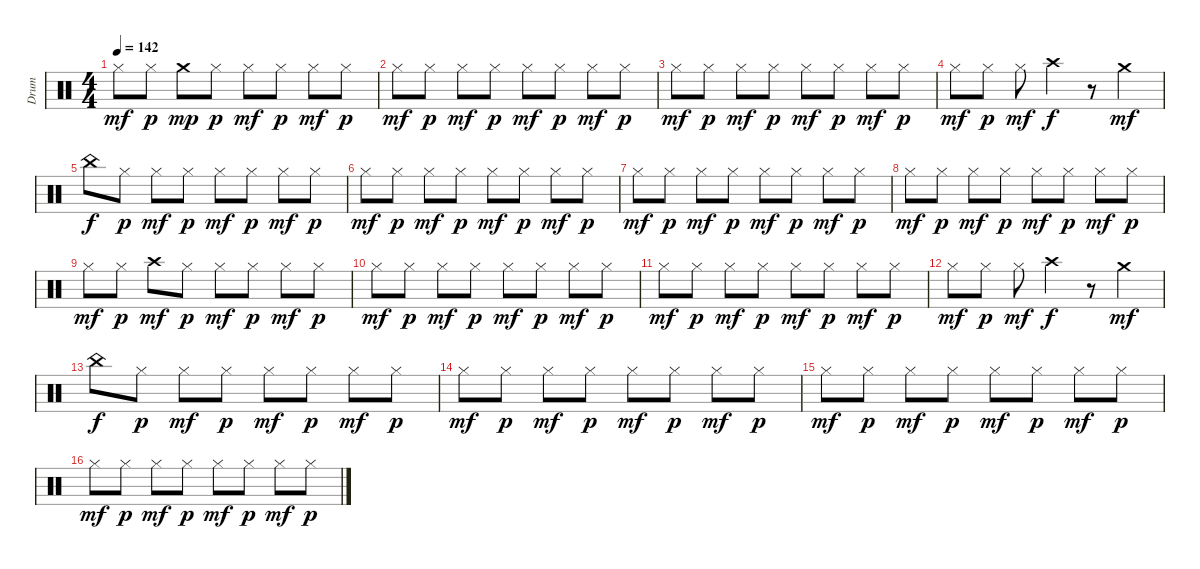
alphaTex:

\track ("Drum" "Drum") {instrument percussion}
\staff {score}
\articulation defaults
\ts (4 4)
\tempo 142
\clef neutral
\ks c "Hi-Hat (closed)".8{dy mf} "Hi-Hat (closed)".8{dy p} "Crash medium (hit)".8{dy mp} "Hi-Hat (closed)".8{dy p} "Hi-Hat (closed)".8{dy mf} "Hi-Hat (closed)".8{dy p} "Hi-Hat (closed)".8{dy mf} "Hi-Hat (closed)".8{dy p}
|
"Hi-Hat (closed)".8{dy mf} "Hi-Hat (closed)".8{dy p} "Hi-Hat (closed)".8{dy mf} "Hi-Hat (closed)".8{dy p} "Hi-Hat (closed)".8{dy mf} "Hi-Hat (closed)".8{dy p} "Hi-Hat (closed)".8{dy mf} "Hi-Hat (closed)".8{dy p} |
"Hi-Hat (closed)".8{dy mf} "Hi-Hat (closed)".8{dy p} "Hi-Hat (closed)".8{dy mf} "Hi-Hat (closed)".8{dy p} "Hi-Hat (closed)".8{dy mf} "Hi-Hat (closed)".8{dy p} "Hi-Hat (closed)".8{dy mf} "Hi-Hat (closed)".8{dy p} |
"Hi-Hat (closed)".8{dy mf} "Hi-Hat (closed)".8{dy p} "Hi-Hat (closed)".8{dy mf} "Crash high (hit)".4{dy f} r.8 "Crash medium (hit)".4{dy mf} |
"China (hit)".8{dy f} "Hi-Hat (closed)".8{dy p} "Hi-Hat (closed)".8{dy mf} "Hi-Hat (closed)".8{dy p} "Hi-Hat (closed)".8{dy mf} "Hi-Hat (closed)".8{dy p} "Hi-Hat (closed)".8{dy mf} "Hi-Hat (closed)".8{dy p} |
"Hi-Hat (closed)".8{dy mf} "Hi-Hat (closed)".8{dy p} "Hi-Hat (closed)".8{dy mf} "Hi-Hat (closed)".8{dy p} "Hi-Hat (closed)".8{dy mf} "Hi-Hat (closed)".8{dy p} "Hi-Hat (closed)".8{dy mf} "Hi-Hat (closed)".8{dy p} |
"Hi-Hat (closed)".8{dy mf} "Hi-Hat (closed)".8{dy p} "Hi-Hat (closed)".8{dy mf} "Hi-Hat (closed)".8{dy p} "Hi-Hat (closed)".8{dy mf} "Hi-Hat (closed)".8{dy p} "Hi-Hat (closed)".8{dy mf} "Hi-Hat (closed)".8{dy p} |
"Hi-Hat (closed)".8{dy mf} "Hi-Hat (closed)".8{dy p} "Hi-Hat (closed)".8{dy mf} "Hi-Hat (closed)".8{dy p} "Hi-Hat (closed)".8{dy mf} "Hi-Hat (closed)".8{dy p} "Hi-Hat (closed)".8{dy mf} "Hi-Hat (closed)".8{dy p} |
"Hi-Hat (closed)".8{dy mf} "Hi-Hat (closed)".8{dy p} "Crash high (hit)".8{dy mf} "Hi-Hat (closed)".8{dy p} "Hi-Hat (closed)".8{dy mf} "Hi-Hat (closed)".8{dy p} "Hi-Hat (closed)".8{dy mf} "Hi-Hat (closed)".8{dy p} |
"Hi-Hat (closed)".8{dy mf} "Hi-Hat (closed)".8{dy p} "Hi-Hat (closed)".8{dy mf} "Hi-Hat (closed)".8{dy p} "Hi-Hat (closed)".8{dy mf} "Hi-Hat (closed)".8{dy p} "Hi-Hat (closed)".8{dy mf} "Hi-Hat (closed)".8{dy p} |
"Hi-Hat (closed)".8{dy mf} "Hi-Hat (closed)".8{dy p} "Hi-Hat (closed)".8{dy mf} "Hi-Hat (closed)".8{dy p} "Hi-Hat (closed)".8{dy mf} "Hi-Hat (closed)".8{dy p} "Hi-Hat (closed)".8{dy mf} "Hi-Hat (closed)".8{dy p} |
"Hi-Hat (closed)".8{dy mf} "Hi-Hat (closed)".8{dy p} "Hi-Hat (closed)".8{dy mf} "Crash high (hit)".4{dy f} r.8 "Crash medium (hit)".4{dy mf} |
"China (hit)".8{dy f} "Hi-Hat (closed)".8{dy p} "Hi-Hat (closed)".8{dy mf} "Hi-Hat (closed)".8{dy p} "Hi-Hat (closed)".8{dy mf} "Hi-Hat (closed)".8{dy p} "Hi-Hat (closed)".8{dy mf} "Hi-Hat (closed)".8{dy p} |
"Hi-Hat (closed)".8{dy mf} "Hi-Hat (closed)".8{dy p} "Hi-Hat (closed)".8{dy mf} "Hi-Hat (closed)".8{dy p} "Hi-Hat (closed)".8{dy mf} "Hi-Hat (closed)".8{dy p} "Hi-Hat (closed)".8{dy mf} "Hi-Hat (closed)".8{dy p} |
"Hi-Hat (closed)".8{dy mf} "Hi-Hat (closed)".8{dy p} "Hi-Hat (closed)".8{dy mf} "Hi-Hat (closed)".8{dy p} "Hi-Hat (closed)".8{dy mf} "Hi-Hat (closed)".8{dy p} "Hi-Hat (closed)".8{dy mf} "Hi-Hat (closed)".8{dy p} |
"Hi-Hat (closed)".8{dy mf} "Hi-Hat (closed)".8{dy p} "Hi-Hat (closed)".8{dy mf} "Hi-Hat (closed)".8{dy p} "Hi-Hat (closed)".8{dy mf} "Hi-Hat (closed)".8{dy p} "Hi-Hat (closed)".8{dy mf} "Hi-Hat (closed)".8{dy p}
